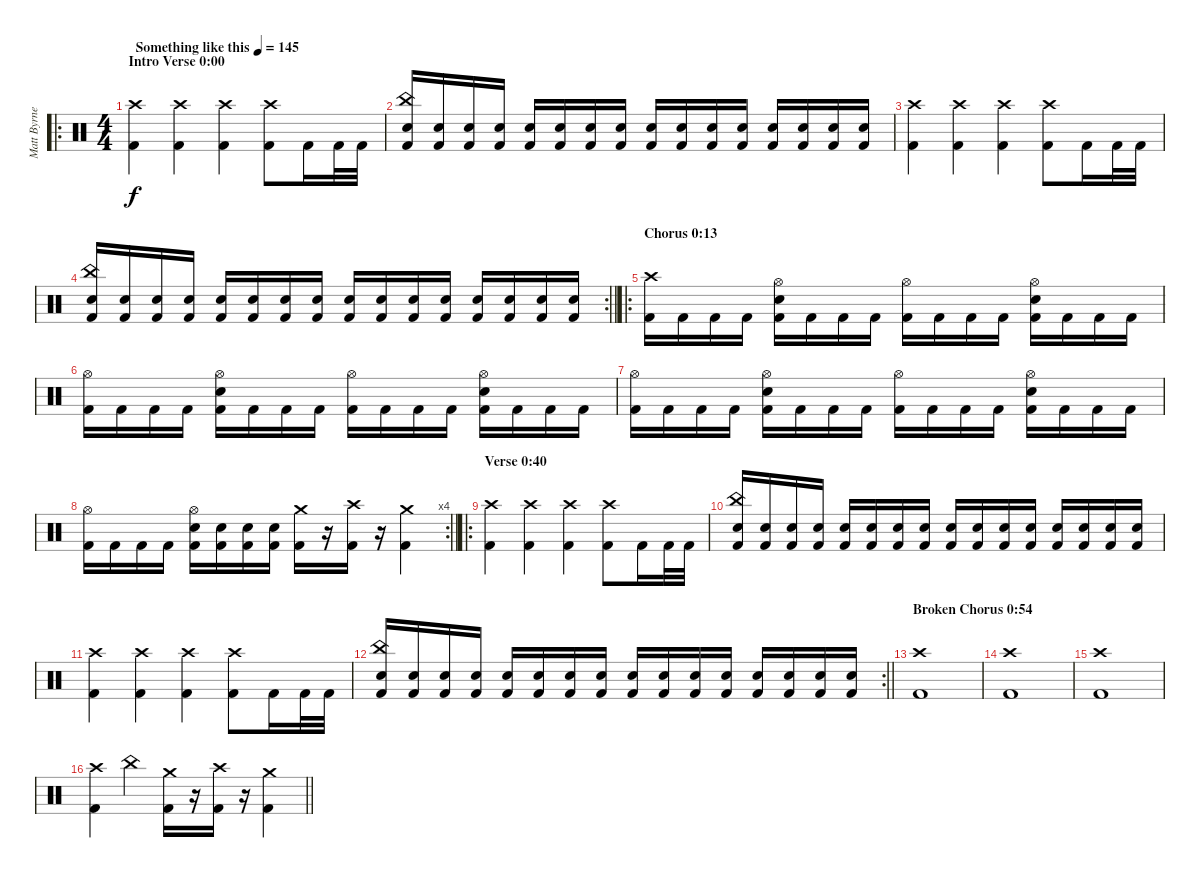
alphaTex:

\track ("Matt Byrne, Drums" "Matt Byrne") {instrument percussion}
\staff {score}
\articulation defaults
\ro
\ts (4 4)
\section ("" "Intro Verse 0:00")
\tempo (145 "Something like this")
\clef neutral
\ks c
("Crash high (hit)" "Kick (hit) 2").4{dy f} ("Crash high (hit)" "Kick (hit) 2").4 ("Crash high (hit)" "Kick (hit) 2").4 ("Crash high (hit)" "Kick (hit) 2").8 "Kick (hit) 2".16 "Kick (hit) 2".32 "Kick (hit) 2".32 |
("China (hit)" "Electric Snare (hit)" "Kick (hit) 2").16 ("Electric Snare (hit)" "Kick (hit) 2").16 ("Electric Snare (hit)" "Kick (hit) 2").16 ("Electric Snare (hit)" "Kick (hit) 2").16 ("Electric Snare (hit)" "Kick (hit) 2").16 ("Electric Snare (hit)" "Kick (hit) 2").16 ("Electric Snare (hit)" "Kick (hit) 2").16 ("Electric Snare (hit)" "Kick (hit) 2").16 ("Electric Snare (hit)" "Kick (hit) 2").16 ("Electric Snare (hit)" "Kick (hit) 2").16 ("Electric Snare (hit)" "Kick (hit) 2").16 ("Electric Snare (hit)" "Kick (hit) 2").16 ("Electric Snare (hit)" "Kick (hit) 2").16 ("Electric Snare (hit)" "Kick (hit) 2").16 ("Electric Snare (hit)" "Kick (hit) 2").16 ("Electric Snare (hit)" "Kick (hit) 2").16 |
("Crash high (hit)" "Kick (hit) 2").4 ("Crash high (hit)" "Kick (hit) 2").4 ("Crash high (hit)" "Kick (hit) 2").4 ("Crash high (hit)" "Kick (hit) 2").8 "Kick (hit) 2".16 "Kick (hit) 2".32 "Kick (hit) 2".32 |
\rc 2
\barLineRight lightlight
("China (hit)" "Electric Snare (hit)" "Kick (hit) 2").16 ("Electric Snare (hit)" "Kick (hit) 2").16 ("Electric Snare (hit)" "Kick (hit) 2").16 ("Electric Snare (hit)" "Kick (hit) 2").16 ("Electric Snare (hit)" "Kick (hit) 2").16 ("Electric Snare (hit)" "Kick (hit) 2").16 ("Electric Snare (hit)" "Kick (hit) 2").16 ("Electric Snare (hit)" "Kick (hit) 2").16 ("Electric Snare (hit)" "Kick (hit) 2").16 ("Electric Snare (hit)" "Kick (hit) 2").16 ("Electric Snare (hit)" "Kick (hit) 2").16 ("Electric Snare (hit)" "Kick (hit) 2").16 ("Electric Snare (hit)" "Kick (hit) 2").16 ("Electric Snare (hit)" "Kick (hit) 2").16 ("Electric Snare (hit)" "Kick (hit) 2").16 ("Electric Snare (hit)" "Kick (hit) 2").16 |
\ro
\section ("" "Chorus 0:13")
("Crash high (hit)" "Kick (hit) 2").16 "Kick (hit) 2".16 "Kick (hit) 2".16 "Kick (hit) 2".16 ("Hi-Hat (open)" "Electric Snare (hit)" "Kick (hit) 2").16 "Kick (hit) 2".16 "Kick (hit) 2".16 "Kick (hit) 2".16 ("Hi-Hat (open)" "Kick (hit) 2").16 "Kick (hit) 2".16 "Kick (hit) 2".16 "Kick (hit) 2".16 ("Hi-Hat (open)" "Electric Snare (hit)" "Kick (hit) 2").16 "Kick (hit) 2".16 "Kick (hit) 2".16 "Kick (hit) 2".16 |
("Hi-Hat (open)" "Kick (hit) 2").16 "Kick (hit) 2".16 "Kick (hit) 2".16 "Kick (hit) 2".16 ("Hi-Hat (open)" "Electric Snare (hit)" "Kick (hit) 2").16 "Kick (hit) 2".16 "Kick (hit) 2".16 "Kick (hit) 2".16 ("Hi-Hat (open)" "Kick (hit) 2").16 "Kick (hit) 2".16 "Kick (hit) 2".16 "Kick (hit) 2".16 ("Hi-Hat (open)" "Electric Snare (hit)" "Kick (hit) 2").16 "Kick (hit) 2".16 "Kick (hit) 2".16 "Kick (hit) 2".16 |
("Hi-Hat (open)" "Kick (hit) 2").16 "Kick (hit) 2".16 "Kick (hit) 2".16 "Kick (hit) 2".16 ("Hi-Hat (open)" "Electric Snare (hit)" "Kick (hit) 2").16 "Kick (hit) 2".16 "Kick (hit) 2".16 "Kick (hit) 2".16 ("Hi-Hat (open)" "Kick (hit) 2").16 "Kick (hit) 2".16 "Kick (hit) 2".16 "Kick (hit) 2".16 ("Hi-Hat (open)" "Electric Snare (hit)" "Kick (hit) 2").16 "Kick (hit) 2".16 "Kick (hit) 2".16 "Kick (hit) 2".16 |
\rc 4
\barLineRight lightlight
("Hi-Hat (open)" "Kick (hit) 2").16 "Kick (hit) 2".16 "Kick (hit) 2".16 "Kick (hit) 2".16 ("Hi-Hat (open)" "Electric Snare (hit)" "Kick (hit) 2").16 ("Electric Snare (hit)" "Kick (hit) 2").16 ("Electric Snare (hit)" "Kick (hit) 2").16 ("Electric Snare (hit)" "Kick (hit) 2").16 ("Crash medium (hit)" "Kick (hit) 2").16 r.16 ("Crash high (hit)" "Kick (hit) 2").16 r.16 ("Crash medium (hit)" "Kick (hit) 2").4 |
\ro
\section ("" "Verse 0:40")
("Crash high (hit)" "Kick (hit) 2").4 ("Crash high (hit)" "Kick (hit) 2").4 ("Crash high (hit)" "Kick (hit) 2").4 ("Crash high (hit)" "Kick (hit) 2").8 "Kick (hit) 2".16 "Kick (hit) 2".32 "Kick (hit) 2".32 |
("China (hit)" "Electric Snare (hit)" "Kick (hit) 2").16 ("Electric Snare (hit)" "Kick (hit) 2").16 ("Electric Snare (hit)" "Kick (hit) 2").16 ("Electric Snare (hit)" "Kick (hit) 2").16 ("Electric Snare (hit)" "Kick (hit) 2").16 ("Electric Snare (hit)" "Kick (hit) 2").16 ("Electric Snare (hit)" "Kick (hit) 2").16 ("Electric Snare (hit)" "Kick (hit) 2").16 ("Electric Snare (hit)" "Kick (hit) 2").16 ("Electric Snare (hit)" "Kick (hit) 2").16 ("Electric Snare (hit)" "Kick (hit) 2").16 ("Electric Snare (hit)" "Kick (hit) 2").16 ("Electric Snare (hit)" "Kick (hit) 2").16 ("Electric Snare (hit)" "Kick (hit) 2").16 ("Electric Snare (hit)" "Kick (hit) 2").16 ("Electric Snare (hit)" "Kick (hit) 2").16 |
("Crash high (hit)" "Kick (hit) 2").4 ("Crash high (hit)" "Kick (hit) 2").4 ("Crash high (hit)" "Kick (hit) 2").4 ("Crash high (hit)" "Kick (hit) 2").8 "Kick (hit) 2".16 "Kick (hit) 2".32 "Kick (hit) 2".32 |
\rc 2
\barLineRight lightlight
("China (hit)" "Electric Snare (hit)" "Kick (hit) 2").16 ("Electric Snare (hit)" "Kick (hit) 2").16 ("Electric Snare (hit)" "Kick (hit) 2").16 ("Electric Snare (hit)" "Kick (hit) 2").16 ("Electric Snare (hit)" "Kick (hit) 2").16 ("Electric Snare (hit)" "Kick (hit) 2").16 ("Electric Snare (hit)" "Kick (hit) 2").16 ("Electric Snare (hit)" "Kick (hit) 2").16 ("Electric Snare (hit)" "Kick (hit) 2").16 ("Electric Snare (hit)" "Kick (hit) 2").16 ("Electric Snare (hit)" "Kick (hit) 2").16 ("Electric Snare (hit)" "Kick (hit) 2").16 ("Electric Snare (hit)" "Kick (hit) 2").16 ("Electric Snare (hit)" "Kick (hit) 2").16 ("Electric Snare (hit)" "Kick (hit) 2").16 ("Electric Snare (hit)" "Kick (hit) 2").16 |
\section ("" "Broken Chorus 0:54")
("Crash high (hit)" "Kick (hit) 2").1 |
("Crash high (hit)" "Kick (hit) 2").1 |
("Crash high (hit)" "Kick (hit) 2").1 |
\barLineRight lightlight
("Crash high (hit)" "Kick (hit) 2").4 "China (hit)".4 ("Crash medium (hit)" "Kick (hit) 2").16 r.16 ("Crash high (hit)" "Kick (hit) 2").16 r.16 ("Crash medium (hit)" "Kick (hit) 2").4
